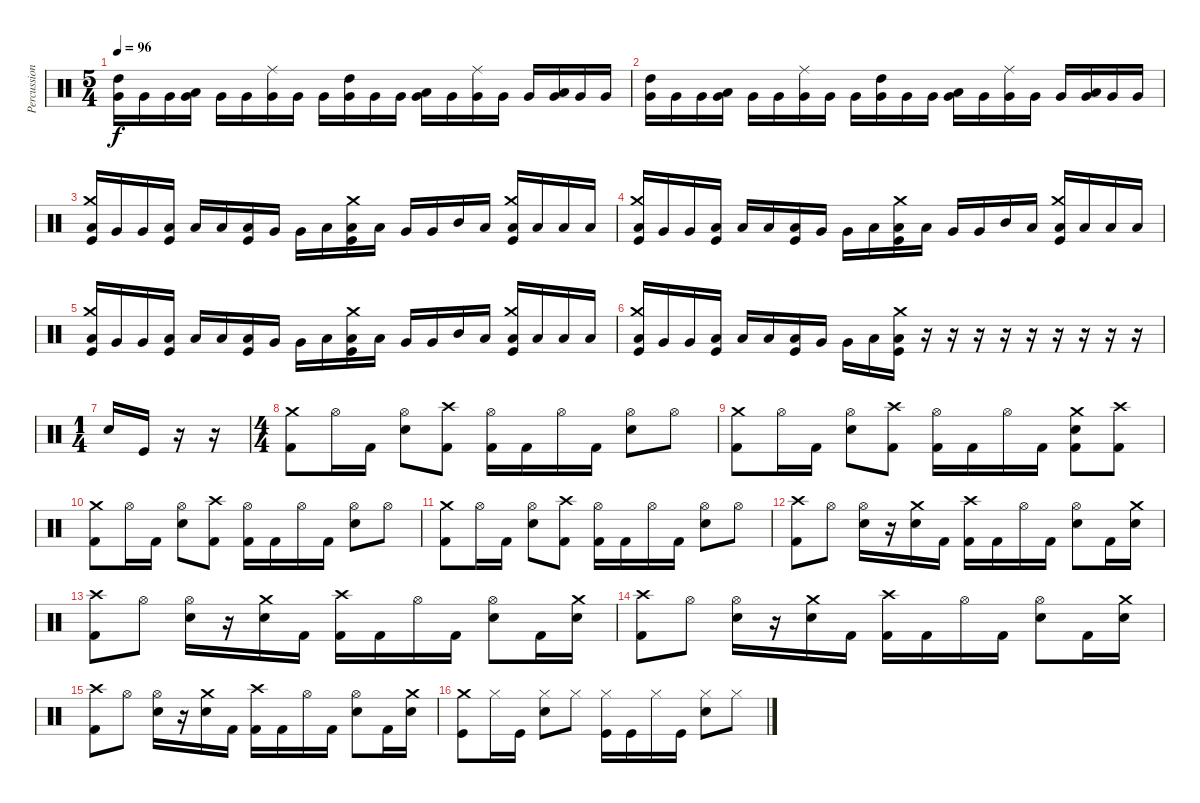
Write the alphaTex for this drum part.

\track ("Percussion" "Percussion") {instrument percussion}
\staff {score}
\articulation defaults
\ts (5 4)
\tempo 96
\clef neutral
\ks c
("High Tom (hit)" "Very Low Tom (hit)").16{dy f volume 10} "Very Low Tom (hit)".16 "Very Low Tom (hit)".16 ("Low Tom (hit)" "Very Low Tom (hit)").16 "Very Low Tom (hit)".16 "Very Low Tom (hit)".16 ("Ride (middle)" "Very Low Tom (hit)").16 "Very Low Tom (hit)".16 "Very Low Tom (hit)".16 ("High Tom (hit)" "Very Low Tom (hit)").16 "Very Low Tom (hit)".16 "Very Low Tom (hit)".16 ("Low Tom (hit)" "Very Low Tom (hit)").16 "Very Low Tom (hit)".16 ("Ride (middle)" "Very Low Tom (hit)").16 "Very Low Tom (hit)".16 "Very Low Tom (hit)".16 ("Low Tom (hit)" "Very Low Tom (hit)").16 "Very Low Tom (hit)".16 "Very Low Tom (hit)".16 |
("High Tom (hit)" "Very Low Tom (hit)").16{volume 10} "Very Low Tom (hit)".16 "Very Low Tom (hit)".16 ("Low Tom (hit)" "Very Low Tom (hit)").16 "Very Low Tom (hit)".16 "Very Low Tom (hit)".16 ("Ride (middle)" "Very Low Tom (hit)").16 "Very Low Tom (hit)".16 "Very Low Tom (hit)".16 ("High Tom (hit)" "Very Low Tom (hit)").16 "Very Low Tom (hit)".16 "Very Low Tom (hit)".16 ("Low Tom (hit)" "Very Low Tom (hit)").16 "Very Low Tom (hit)".16 ("Ride (middle)" "Very Low Tom (hit)").16 "Very Low Tom (hit)".16 "Very Low Tom (hit)".16 ("Low Tom (hit)" "Very Low Tom (hit)").16 "Very Low Tom (hit)".16 "Very Low Tom (hit)".16 |
("Crash medium (hit)" "Low Tom (hit)" "Kick (hit)").16{volume 10} "Very Low Tom (hit)".16 "Very Low Tom (hit)".16 ("Low Tom (hit)" "Kick (hit)").16 "Low Floor Tom (hit)".16 "Low Floor Tom (hit)".16 ("Low Tom (hit)" "Kick (hit)").16 "Very Low Tom (hit)".16 "Very Low Tom (hit)".16 "Low Tom (hit)".16 ("Crash medium (hit)" "Low Floor Tom (hit)" "Kick (hit)").16 "Low Floor Tom (hit)".16 "Very Low Tom (hit)".16 "Very Low Tom (hit)".16 "Mid Tom (hit)".16 "Low Tom (hit)".16 ("Crash medium (hit)" "Low Tom (hit)" "Kick (hit)").16 "Low Floor Tom (hit)".16 "Low Floor Tom (hit)".16 "Low Floor Tom (hit)".16 |
("Crash medium (hit)" "Low Tom (hit)" "Kick (hit)").16{volume 10} "Very Low Tom (hit)".16 "Very Low Tom (hit)".16 ("Low Tom (hit)" "Kick (hit)").16 "Low Floor Tom (hit)".16 "Low Floor Tom (hit)".16 ("Low Tom (hit)" "Kick (hit)").16 "Very Low Tom (hit)".16 "Very Low Tom (hit)".16 "Low Tom (hit)".16 ("Crash medium (hit)" "Low Floor Tom (hit)" "Kick (hit)").16 "Low Floor Tom (hit)".16 "Very Low Tom (hit)".16 "Very Low Tom (hit)".16 "Mid Tom (hit)".16 "Low Tom (hit)".16 ("Crash medium (hit)" "Low Tom (hit)" "Kick (hit)").16 "Low Floor Tom (hit)".16 "Low Floor Tom (hit)".16 "Low Floor Tom (hit)".16 |
("Crash medium (hit)" "Low Tom (hit)" "Kick (hit)").16{volume 10} "Very Low Tom (hit)".16 "Very Low Tom (hit)".16 ("Low Tom (hit)" "Kick (hit)").16 "Low Floor Tom (hit)".16 "Low Floor Tom (hit)".16 ("Low Tom (hit)" "Kick (hit)").16 "Very Low Tom (hit)".16 "Very Low Tom (hit)".16 "Low Tom (hit)".16 ("Crash medium (hit)" "Low Floor Tom (hit)" "Kick (hit)").16 "Low Floor Tom (hit)".16 "Very Low Tom (hit)".16 "Very Low Tom (hit)".16 "Mid Tom (hit)".16 "Low Tom (hit)".16 ("Crash medium (hit)" "Low Tom (hit)" "Kick (hit)").16 "Low Floor Tom (hit)".16 "Low Floor Tom (hit)".16 "Low Floor Tom (hit)".16 |
("Crash medium (hit)" "Low Tom (hit)" "Kick (hit)").16{volume 10} "Very Low Tom (hit)".16 "Very Low Tom (hit)".16 ("Low Tom (hit)" "Kick (hit)").16 "Low Floor Tom (hit)".16 "Low Floor Tom (hit)".16 ("Low Tom (hit)" "Kick (hit)").16 "Very Low Tom (hit)".16 "Very Low Tom (hit)".16 "Low Tom (hit)".16 ("Crash medium (hit)" "Low Floor Tom (hit)" "Kick (hit)").16 r.16 r.16 r.16 r.16 r.16 r.16 r.16 r.16 r.16 |
\ts (1 4)
"Electric Snare (hit)".16 "Kick (hit)".16 r.16 r.16 |
\ts (4 4)
("Crash medium (hit)" "Kick (hit) 2").8 "Hi-Hat (open)".16 "Kick (hit) 2".16 ("Hi-Hat (open)" "Electric Snare (hit)").8 ("Crash high (hit)" "Kick (hit) 2").8 ("Hi-Hat (open)" "Kick (hit) 2").16 "Kick (hit) 2".16 "Hi-Hat (open)".16 "Kick (hit) 2".16 ("Hi-Hat (open)" "Electric Snare (hit)").8 "Hi-Hat (open)".8 |
("Crash medium (hit)" "Kick (hit) 2").8 "Hi-Hat (open)".16 "Kick (hit) 2".16 ("Hi-Hat (open)" "Electric Snare (hit)").8 ("Crash high (hit)" "Kick (hit) 2").8 ("Hi-Hat (open)" "Kick (hit) 2").16 "Kick (hit) 2".16 "Hi-Hat (open)".16 "Kick (hit) 2".16 ("Crash medium (hit)" "Electric Snare (hit)" "Kick (hit) 2").8 ("Crash high (hit)" "Kick (hit) 2").8 |
("Crash medium (hit)" "Kick (hit) 2").8 "Hi-Hat (open)".16 "Kick (hit) 2".16 ("Hi-Hat (open)" "Electric Snare (hit)").8 ("Crash high (hit)" "Kick (hit) 2").8 ("Hi-Hat (open)" "Kick (hit) 2").16 "Kick (hit) 2".16 "Hi-Hat (open)".16 "Kick (hit) 2".16 ("Hi-Hat (open)" "Electric Snare (hit)").8 "Hi-Hat (open)".8 |
("Crash medium (hit)" "Kick (hit) 2").8 "Hi-Hat (open)".16 "Kick (hit) 2".16 ("Hi-Hat (open)" "Electric Snare (hit)").8 ("Crash high (hit)" "Kick (hit) 2").8 ("Hi-Hat (open)" "Kick (hit) 2").16 "Kick (hit) 2".16 "Hi-Hat (open)".16 "Kick (hit) 2".16 ("Hi-Hat (open)" "Electric Snare (hit)").8 "Hi-Hat (open)".8 |
("Crash high (hit)" "Kick (hit) 2").8 "Hi-Hat (open)".8 ("Hi-Hat (open)" "Electric Snare (hit)").16 r.16 ("Crash medium (hit)" "Electric Snare (hit)").16 "Kick (hit) 2".16 ("Crash high (hit)" "Kick (hit) 2").16 "Kick (hit) 2".16 "Hi-Hat (open)".16 "Kick (hit) 2".16 ("Hi-Hat (open)" "Electric Snare (hit)").8 "Kick (hit) 2".16 ("Crash medium (hit)" "Electric Snare (hit)").16 |
("Crash high (hit)" "Kick (hit) 2").8 "Hi-Hat (open)".8 ("Hi-Hat (open)" "Electric Snare (hit)").16 r.16 ("Crash medium (hit)" "Electric Snare (hit)").16 "Kick (hit) 2".16 ("Crash high (hit)" "Kick (hit) 2").16 "Kick (hit) 2".16 "Hi-Hat (open)".16 "Kick (hit) 2".16 ("Hi-Hat (open)" "Electric Snare (hit)").8 "Kick (hit) 2".16 ("Crash medium (hit)" "Electric Snare (hit)").16 |
("Crash high (hit)" "Kick (hit) 2").8 "Hi-Hat (open)".8 ("Hi-Hat (open)" "Electric Snare (hit)").16 r.16 ("Crash medium (hit)" "Electric Snare (hit)").16 "Kick (hit) 2".16 ("Crash high (hit)" "Kick (hit) 2").16 "Kick (hit) 2".16 "Hi-Hat (open)".16 "Kick (hit) 2".16 ("Hi-Hat (open)" "Electric Snare (hit)").8 "Kick (hit) 2".16 ("Crash medium (hit)" "Electric Snare (hit)").16 |
("Crash high (hit)" "Kick (hit) 2").8 "Hi-Hat (open)".8 ("Hi-Hat (open)" "Electric Snare (hit)").16 r.16 ("Crash medium (hit)" "Electric Snare (hit)").16 "Kick (hit) 2".16 ("Crash high (hit)" "Kick (hit) 2").16 "Kick (hit) 2".16 "Hi-Hat (open)".16 "Kick (hit) 2".16 ("Hi-Hat (open)" "Electric Snare (hit)").8 "Kick (hit) 2".16 ("Crash medium (hit)" "Electric Snare (hit)").16 |
("Crash medium (hit)" "Kick (hit)").8 "Hi-Hat (closed)".16 "Kick (hit)".16 ("Hi-Hat (closed)" "Snare (hit) 2").8 "Hi-Hat (closed)".8 ("Hi-Hat (closed)" "Kick (hit)").16 "Kick (hit)".16 "Hi-Hat (closed)".16 "Kick (hit)".16 ("Hi-Hat (closed)" "Snare (hit) 2").8 "Hi-Hat (closed)".8
